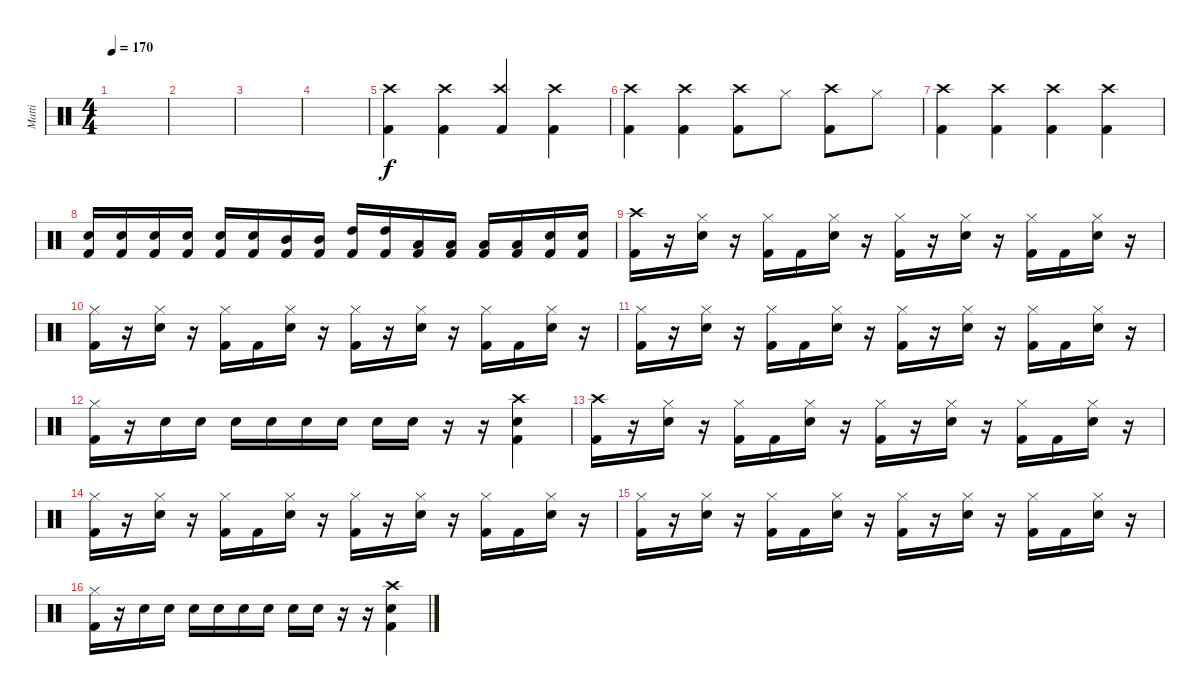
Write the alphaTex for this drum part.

\track ("Matti" "Matti") {instrument percussion}
\staff {score}
\articulation defaults
\ts (4 4)
\tempo 170
\clef neutral
\ks c
|
|
|
|
("Crash high (hit)" "Kick (hit) 2").4 ("Crash high (hit)" "Kick (hit) 2").4 ("Crash high (hit)" "Kick (hit) 2").4{beam Up} ("Crash high (hit)" "Kick (hit) 2").4 |
("Crash high (hit)" "Kick (hit) 2").4 ("Crash high (hit)" "Kick (hit) 2").4 ("Crash high (hit)" "Kick (hit) 2").8 "Hi-Hat (closed)".8 ("Crash high (hit)" "Kick (hit) 2").8 "Hi-Hat (closed)".8 |
("Crash high (hit)" "Kick (hit) 2").4 ("Crash high (hit)" "Kick (hit) 2").4 ("Crash high (hit)" "Kick (hit) 2").4 ("Crash high (hit)" "Kick (hit) 2").4 |
("Snare (hit) 2" "Kick (hit) 2").16 ("Snare (hit) 2" "Kick (hit) 2").16 ("Snare (hit) 2" "Kick (hit) 2").16 ("Snare (hit) 2" "Kick (hit) 2").16 ("Snare (hit) 2" "Kick (hit) 2").16 ("Snare (hit) 2" "Kick (hit) 2").16 ("Mid Tom (hit)" "Kick (hit) 2").16 ("Mid Tom (hit)" "Kick (hit) 2").16 ("High Tom (hit)" "Kick (hit) 2").16 ("High Tom (hit)" "Kick (hit) 2").16 ("Low Tom (hit)" "Kick (hit) 2").16 ("Low Tom (hit)" "Kick (hit) 2").16 ("Low Floor Tom (hit)" "Kick (hit) 2").16 ("Low Floor Tom (hit)" "Kick (hit) 2").16 ("Snare (hit) 2" "Kick (hit) 2").16 ("Snare (hit) 2" "Kick (hit) 2").16 |
("Kick (hit) 2" "Crash high (hit)").16 r.16 ("Snare (hit) 2" "Hi-Hat (closed)").16 r.16 ("Kick (hit) 2" "Hi-Hat (closed)").16 "Kick (hit) 2".16 ("Snare (hit) 2" "Hi-Hat (closed)").16 r.16 ("Kick (hit) 2" "Hi-Hat (closed)").16 r.16 ("Snare (hit) 2" "Hi-Hat (closed)").16 r.16 ("Kick (hit) 2" "Hi-Hat (closed)").16 "Kick (hit) 2".16 ("Snare (hit) 2" "Hi-Hat (closed)").16 r.16 |
("Kick (hit) 2" "Hi-Hat (closed)").16 r.16 ("Snare (hit) 2" "Hi-Hat (closed)").16 r.16 ("Kick (hit) 2" "Hi-Hat (closed)").16 "Kick (hit) 2".16 ("Snare (hit) 2" "Hi-Hat (closed)").16 r.16 ("Kick (hit) 2" "Hi-Hat (closed)").16 r.16 ("Snare (hit) 2" "Hi-Hat (closed)").16 r.16 ("Kick (hit) 2" "Hi-Hat (closed)").16 "Kick (hit) 2".16 ("Snare (hit) 2" "Hi-Hat (closed)").16 r.16 |
("Kick (hit) 2" "Hi-Hat (closed)").16 r.16 ("Snare (hit) 2" "Hi-Hat (closed)").16 r.16 ("Kick (hit) 2" "Hi-Hat (closed)").16 "Kick (hit) 2".16 ("Snare (hit) 2" "Hi-Hat (closed)").16 r.16 ("Kick (hit) 2" "Hi-Hat (closed)").16 r.16 ("Snare (hit) 2" "Hi-Hat (closed)").16 r.16 ("Kick (hit) 2" "Hi-Hat (closed)").16 "Kick (hit) 2".16 ("Snare (hit) 2" "Hi-Hat (closed)").16 r.16 |
("Kick (hit) 2" "Hi-Hat (closed)").16 r.16 "Snare (hit) 2".16 "Snare (hit) 2".16 "Snare (hit) 2".16 "Snare (hit) 2".16 "Snare (hit) 2".16 "Snare (hit) 2".16 "Snare (hit) 2".16 "Snare (hit) 2".16 r.16 r.16 ("Crash high (hit)" "Kick (hit) 2" "Snare (hit) 2").4 |
("Kick (hit) 2" "Crash high (hit)").16 r.16 ("Snare (hit) 2" "Hi-Hat (closed)").16 r.16 ("Kick (hit) 2" "Hi-Hat (closed)").16 "Kick (hit) 2".16 ("Snare (hit) 2" "Hi-Hat (closed)").16 r.16 ("Kick (hit) 2" "Hi-Hat (closed)").16 r.16 ("Snare (hit) 2" "Hi-Hat (closed)").16 r.16 ("Kick (hit) 2" "Hi-Hat (closed)").16 "Kick (hit) 2".16 ("Snare (hit) 2" "Hi-Hat (closed)").16 r.16 |
("Kick (hit) 2" "Hi-Hat (closed)").16 r.16 ("Snare (hit) 2" "Hi-Hat (closed)").16 r.16 ("Kick (hit) 2" "Hi-Hat (closed)").16 "Kick (hit) 2".16 ("Snare (hit) 2" "Hi-Hat (closed)").16 r.16 ("Kick (hit) 2" "Hi-Hat (closed)").16 r.16 ("Snare (hit) 2" "Hi-Hat (closed)").16 r.16 ("Kick (hit) 2" "Hi-Hat (closed)").16 "Kick (hit) 2".16 ("Snare (hit) 2" "Hi-Hat (closed)").16 r.16 |
("Kick (hit) 2" "Hi-Hat (closed)").16 r.16 ("Snare (hit) 2" "Hi-Hat (closed)").16 r.16 ("Kick (hit) 2" "Hi-Hat (closed)").16 "Kick (hit) 2".16 ("Snare (hit) 2" "Hi-Hat (closed)").16 r.16 ("Kick (hit) 2" "Hi-Hat (closed)").16 r.16 ("Snare (hit) 2" "Hi-Hat (closed)").16 r.16 ("Kick (hit) 2" "Hi-Hat (closed)").16 "Kick (hit) 2".16 ("Snare (hit) 2" "Hi-Hat (closed)").16 r.16 |
("Kick (hit) 2" "Hi-Hat (closed)").16 r.16 "Snare (hit) 2".16 "Snare (hit) 2".16 "Snare (hit) 2".16 "Snare (hit) 2".16 "Snare (hit) 2".16 "Snare (hit) 2".16 "Snare (hit) 2".16 "Snare (hit) 2".16 r.16 r.16 ("Crash high (hit)" "Kick (hit) 2" "Snare (hit) 2").4
